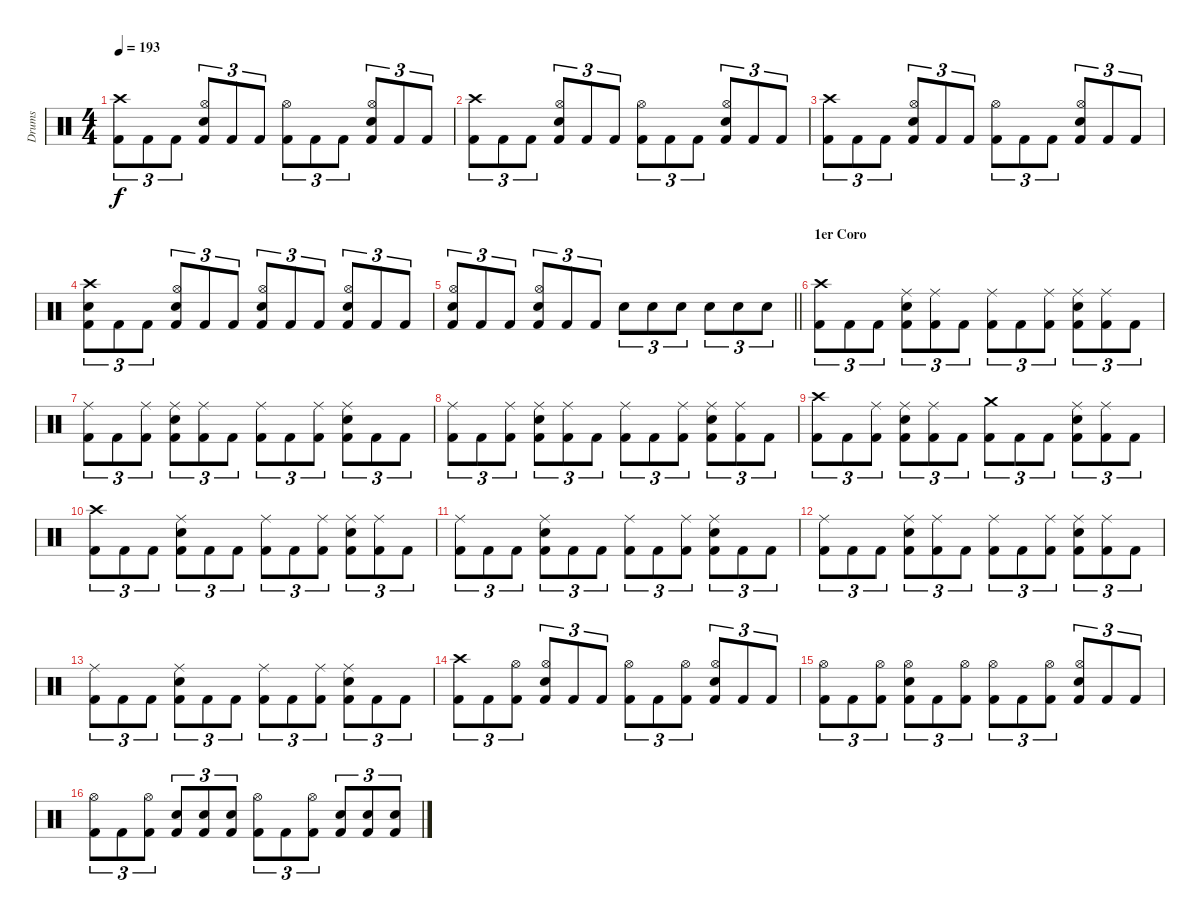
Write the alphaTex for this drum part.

\track ("Drums" "Drums") {instrument percussion}
\staff {score}
\articulation defaults
\ts (4 4)
\tempo 193
\clef neutral
\ks c
("Crash high (hit)" "Kick (hit) 2").8{tu (3 2) dy f} "Kick (hit) 2".8{tu (3 2)} "Kick (hit) 2".8{tu (3 2)} ("Hi-Hat (open)" "Electric Snare (hit)" "Kick (hit) 2").8{tu (3 2)} "Kick (hit) 2".8{tu (3 2)} "Kick (hit) 2".8{tu (3 2)} ("Hi-Hat (open)" "Kick (hit) 2").8{tu (3 2)} "Kick (hit) 2".8{tu (3 2)} "Kick (hit) 2".8{tu (3 2)} ("Hi-Hat (open)" "Electric Snare (hit)" "Kick (hit) 2").8{tu (3 2)} "Kick (hit) 2".8{tu (3 2)} "Kick (hit) 2".8{tu (3 2)} |
("Crash high (hit)" "Kick (hit) 2").8{tu (3 2)} "Kick (hit) 2".8{tu (3 2)} "Kick (hit) 2".8{tu (3 2)} ("Hi-Hat (open)" "Electric Snare (hit)" "Kick (hit) 2").8{tu (3 2)} "Kick (hit) 2".8{tu (3 2)} "Kick (hit) 2".8{tu (3 2)} ("Hi-Hat (open)" "Kick (hit) 2").8{tu (3 2)} "Kick (hit) 2".8{tu (3 2)} "Kick (hit) 2".8{tu (3 2)} ("Hi-Hat (open)" "Electric Snare (hit)" "Kick (hit) 2").8{tu (3 2)} "Kick (hit) 2".8{tu (3 2)} "Kick (hit) 2".8{tu (3 2)} |
("Crash high (hit)" "Kick (hit) 2").8{tu (3 2)} "Kick (hit) 2".8{tu (3 2)} "Kick (hit) 2".8{tu (3 2)} ("Hi-Hat (open)" "Electric Snare (hit)" "Kick (hit) 2").8{tu (3 2)} "Kick (hit) 2".8{tu (3 2)} "Kick (hit) 2".8{tu (3 2)} ("Hi-Hat (open)" "Kick (hit) 2").8{tu (3 2)} "Kick (hit) 2".8{tu (3 2)} "Kick (hit) 2".8{tu (3 2)} ("Hi-Hat (open)" "Electric Snare (hit)" "Kick (hit) 2").8{tu (3 2)} "Kick (hit) 2".8{tu (3 2)} "Kick (hit) 2".8{tu (3 2)} |
("Crash high (hit)" "Electric Snare (hit)" "Kick (hit) 2").8{tu (3 2)} "Kick (hit) 2".8{tu (3 2)} "Kick (hit) 2".8{tu (3 2)} ("Hi-Hat (open)" "Electric Snare (hit)" "Kick (hit) 2").8{tu (3 2)} "Kick (hit) 2".8{tu (3 2)} "Kick (hit) 2".8{tu (3 2)} ("Hi-Hat (open)" "Electric Snare (hit)" "Kick (hit) 2").8{tu (3 2)} "Kick (hit) 2".8{tu (3 2)} "Kick (hit) 2".8{tu (3 2)} ("Hi-Hat (open)" "Electric Snare (hit)" "Kick (hit) 2").8{tu (3 2)} "Kick (hit) 2".8{tu (3 2)} "Kick (hit) 2".8{tu (3 2)} |
\barLineRight lightlight
("Hi-Hat (open)" "Electric Snare (hit)" "Kick (hit) 2").8{tu (3 2)} "Kick (hit) 2".8{tu (3 2)} "Kick (hit) 2".8{tu (3 2)} ("Hi-Hat (open)" "Electric Snare (hit)" "Kick (hit) 2").8{tu (3 2)} "Kick (hit) 2".8{tu (3 2)} "Kick (hit) 2".8{tu (3 2)} "Electric Snare (hit)".8{tu (3 2)} "Electric Snare (hit)".8{tu (3 2)} "Electric Snare (hit)".8{tu (3 2)} "Electric Snare (hit)".8{tu (3 2)} "Electric Snare (hit)".8{tu (3 2)} "Electric Snare (hit)".8{tu (3 2)} |
\section ("" "1er Coro")
("Crash high (hit)" "Kick (hit) 2").8{tu (3 2)} "Kick (hit) 2".8{tu (3 2)} "Kick (hit) 2".8{tu (3 2)} ("Ride (middle)" "Electric Snare (hit)" "Kick (hit) 2").8{tu (3 2)} ("Ride (middle)" "Kick (hit) 2").8{tu (3 2)} "Kick (hit) 2".8{tu (3 2)} ("Ride (middle)" "Kick (hit) 2").8{tu (3 2)} "Kick (hit) 2".8{tu (3 2)} ("Ride (middle)" "Kick (hit) 2").8{tu (3 2)} ("Ride (middle)" "Electric Snare (hit)" "Kick (hit) 2").8{tu (3 2)} ("Ride (middle)" "Kick (hit) 2").8{tu (3 2)} "Kick (hit) 2".8{tu (3 2)} |
("Ride (middle)" "Kick (hit) 2").8{tu (3 2)} "Kick (hit) 2".8{tu (3 2)} ("Ride (middle)" "Kick (hit) 2").8{tu (3 2)} ("Ride (middle)" "Electric Snare (hit)" "Kick (hit) 2").8{tu (3 2)} ("Ride (middle)" "Kick (hit) 2").8{tu (3 2)} "Kick (hit) 2".8{tu (3 2)} ("Ride (middle)" "Kick (hit) 2").8{tu (3 2)} "Kick (hit) 2".8{tu (3 2)} ("Ride (middle)" "Kick (hit) 2").8{tu (3 2)} ("Ride (middle)" "Electric Snare (hit)" "Kick (hit) 2").8{tu (3 2)} "Kick (hit) 2".8{tu (3 2)} "Kick (hit) 2".8{tu (3 2)} |
("Ride (middle)" "Kick (hit) 2").8{tu (3 2)} "Kick (hit) 2".8{tu (3 2)} ("Ride (middle)" "Kick (hit) 2").8{tu (3 2)} ("Ride (middle)" "Electric Snare (hit)" "Kick (hit) 2").8{tu (3 2)} ("Ride (middle)" "Kick (hit) 2").8{tu (3 2)} "Kick (hit) 2".8{tu (3 2)} ("Ride (middle)" "Kick (hit) 2").8{tu (3 2)} "Kick (hit) 2".8{tu (3 2)} ("Ride (middle)" "Kick (hit) 2").8{tu (3 2)} ("Ride (middle)" "Electric Snare (hit)" "Kick (hit) 2").8{tu (3 2)} ("Ride (middle)" "Kick (hit) 2").8{tu (3 2)} "Kick (hit) 2".8{tu (3 2)} |
("Crash high (hit)" "Kick (hit) 2").8{tu (3 2)} "Kick (hit) 2".8{tu (3 2)} ("Ride (middle)" "Kick (hit) 2").8{tu (3 2)} ("Ride (middle)" "Electric Snare (hit)" "Kick (hit) 2").8{tu (3 2)} ("Ride (middle)" "Kick (hit) 2").8{tu (3 2)} "Kick (hit) 2".8{tu (3 2)} ("Crash medium (hit)" "Kick (hit) 2").8{tu (3 2)} "Kick (hit) 2".8{tu (3 2)} "Kick (hit) 2".8{tu (3 2)} ("Ride (middle)" "Electric Snare (hit)" "Kick (hit) 2").8{tu (3 2)} ("Ride (middle)" "Kick (hit) 2").8{tu (3 2)} "Kick (hit) 2".8{tu (3 2)} |
("Crash high (hit)" "Kick (hit) 2").8{tu (3 2)} "Kick (hit) 2".8{tu (3 2)} "Kick (hit) 2".8{tu (3 2)} ("Ride (middle)" "Electric Snare (hit)" "Kick (hit) 2").8{tu (3 2)} "Kick (hit) 2".8{tu (3 2)} "Kick (hit) 2".8{tu (3 2)} ("Ride (middle)" "Kick (hit) 2").8{tu (3 2)} "Kick (hit) 2".8{tu (3 2)} ("Ride (middle)" "Kick (hit) 2").8{tu (3 2)} ("Ride (middle)" "Electric Snare (hit)" "Kick (hit) 2").8{tu (3 2)} ("Ride (middle)" "Kick (hit) 2").8{tu (3 2)} "Kick (hit) 2".8{tu (3 2)} |
("Ride (middle)" "Kick (hit) 2").8{tu (3 2)} "Kick (hit) 2".8{tu (3 2)} "Kick (hit) 2".8{tu (3 2)} ("Ride (middle)" "Electric Snare (hit)" "Kick (hit) 2").8{tu (3 2)} "Kick (hit) 2".8{tu (3 2)} "Kick (hit) 2".8{tu (3 2)} ("Ride (middle)" "Kick (hit) 2").8{tu (3 2)} "Kick (hit) 2".8{tu (3 2)} ("Ride (middle)" "Kick (hit) 2").8{tu (3 2)} ("Ride (middle)" "Electric Snare (hit)" "Kick (hit) 2").8{tu (3 2)} "Kick (hit) 2".8{tu (3 2)} "Kick (hit) 2".8{tu (3 2)} |
("Ride (middle)" "Kick (hit) 2").8{tu (3 2)} "Kick (hit) 2".8{tu (3 2)} "Kick (hit) 2".8{tu (3 2)} ("Ride (middle)" "Electric Snare (hit)" "Kick (hit) 2").8{tu (3 2)} ("Ride (middle)" "Kick (hit) 2").8{tu (3 2)} "Kick (hit) 2".8{tu (3 2)} ("Ride (middle)" "Kick (hit) 2").8{tu (3 2)} "Kick (hit) 2".8{tu (3 2)} ("Ride (middle)" "Kick (hit) 2").8{tu (3 2)} ("Ride (middle)" "Electric Snare (hit)" "Kick (hit) 2").8{tu (3 2)} ("Ride (middle)" "Kick (hit) 2").8{tu (3 2)} "Kick (hit) 2".8{tu (3 2)} |
("Ride (middle)" "Kick (hit) 2").8{tu (3 2)} "Kick (hit) 2".8{tu (3 2)} "Kick (hit) 2".8{tu (3 2)} ("Ride (middle)" "Electric Snare (hit)" "Kick (hit) 2").8{tu (3 2)} "Kick (hit) 2".8{tu (3 2)} "Kick (hit) 2".8{tu (3 2)} ("Ride (middle)" "Kick (hit) 2").8{tu (3 2)} "Kick (hit) 2".8{tu (3 2)} ("Ride (middle)" "Kick (hit) 2").8{tu (3 2)} ("Ride (middle)" "Electric Snare (hit)" "Kick (hit) 2").8{tu (3 2)} "Kick (hit) 2".8{tu (3 2)} "Kick (hit) 2".8{tu (3 2)} |
("Crash high (hit)" "Kick (hit) 2").8{tu (3 2)} "Kick (hit) 2".8{tu (3 2)} ("Hi-Hat (open)" "Kick (hit) 2").8{tu (3 2)} ("Hi-Hat (open)" "Electric Snare (hit)" "Kick (hit) 2").8{tu (3 2)} "Kick (hit) 2".8{tu (3 2)} "Kick (hit) 2".8{tu (3 2)} ("Hi-Hat (open)" "Kick (hit) 2").8{tu (3 2)} "Kick (hit) 2".8{tu (3 2)} ("Hi-Hat (open)" "Kick (hit) 2").8{tu (3 2)} ("Hi-Hat (open)" "Electric Snare (hit)" "Kick (hit) 2").8{tu (3 2)} "Kick (hit) 2".8{tu (3 2)} "Kick (hit) 2".8{tu (3 2)} |
("Hi-Hat (open)" "Kick (hit) 2").8{tu (3 2)} "Kick (hit) 2".8{tu (3 2)} ("Hi-Hat (open)" "Kick (hit) 2").8{tu (3 2)} ("Hi-Hat (open)" "Electric Snare (hit)" "Kick (hit) 2").8{tu (3 2)} "Kick (hit) 2".8{tu (3 2)} ("Hi-Hat (open)" "Kick (hit) 2").8{tu (3 2)} ("Hi-Hat (open)" "Kick (hit) 2").8{tu (3 2)} "Kick (hit) 2".8{tu (3 2)} ("Hi-Hat (open)" "Kick (hit) 2").8{tu (3 2)} ("Hi-Hat (open)" "Electric Snare (hit)" "Kick (hit) 2").8{tu (3 2)} "Kick (hit) 2".8{tu (3 2)} "Kick (hit) 2".8{tu (3 2)} |
("Hi-Hat (open)" "Kick (hit) 2").8{tu (3 2)} "Kick (hit) 2".8{tu (3 2)} ("Hi-Hat (open)" "Kick (hit) 2").8{tu (3 2)} ("Electric Snare (hit)" "Kick (hit) 2").8{tu (3 2)} ("Electric Snare (hit)" "Kick (hit) 2").8{tu (3 2)} ("Electric Snare (hit)" "Kick (hit) 2").8{tu (3 2)} ("Hi-Hat (open)" "Kick (hit) 2").8{tu (3 2)} "Kick (hit) 2".8{tu (3 2)} ("Hi-Hat (open)" "Kick (hit) 2").8{tu (3 2)} ("Electric Snare (hit)" "Kick (hit) 2").8{tu (3 2)} ("Electric Snare (hit)" "Kick (hit) 2").8{tu (3 2)} ("Electric Snare (hit)" "Kick (hit) 2").8{tu (3 2)}
